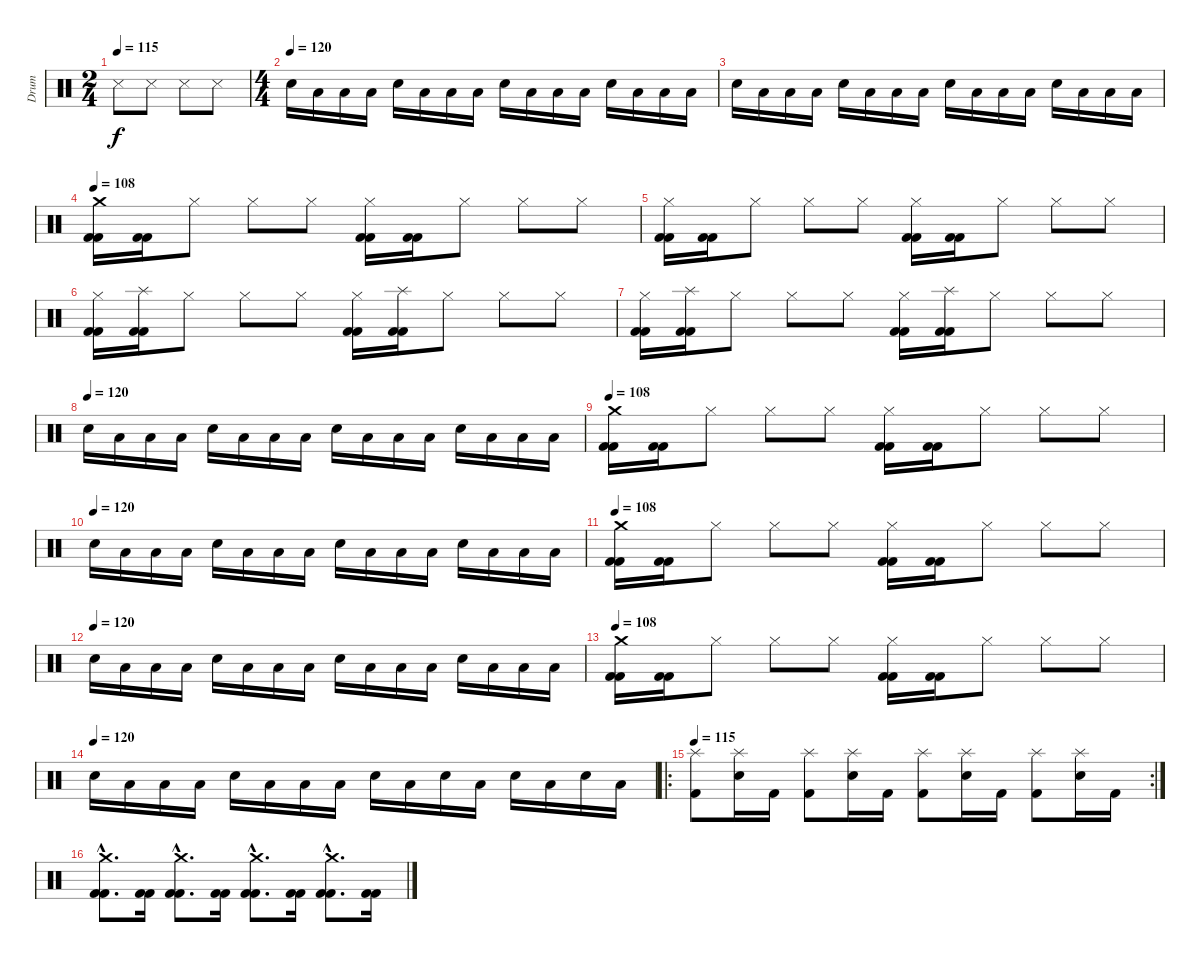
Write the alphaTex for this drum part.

\track ("Drum" "Drum") {instrument percussion}
\staff {score}
\articulation defaults
\ts (2 4)
\tempo 115
\tempo 107
\tempo 115
\clef neutral
\ks c "Snare (side stick) 3".8{dy f} "Snare (side stick) 3".8 "Snare (side stick) 3".8 "Snare (side stick) 3".8
|
\ts (4 4)
\tempo (120)
"Snare (hit) 2".16 "Low Tom (hit)".16 "Low Tom (hit)".16 "Low Tom (hit)".16 "Snare (hit) 2".16 "Low Tom (hit)".16 "Low Tom (hit)".16 "Low Tom (hit)".16 "Snare (hit) 2".16 "Low Tom (hit)".16 "Low Tom (hit)".16 "Low Tom (hit)".16 "Snare (hit) 2".16 "Low Tom (hit)".16 "Low Tom (hit)".16 "Low Tom (hit)".16 |
"Snare (hit) 2".16 "Low Tom (hit)".16 "Low Tom (hit)".16 "Low Tom (hit)".16 "Snare (hit) 2".16 "Low Tom (hit)".16 "Low Tom (hit)".16 "Low Tom (hit)".16 "Snare (hit) 2".16 "Low Tom (hit)".16 "Low Tom (hit)".16 "Low Tom (hit)".16 "Snare (hit) 2".16 "Low Tom (hit)".16 "Low Tom (hit)".16 "Low Tom (hit)".16 |
\tempo 108
("Crash medium (hit)" "Kick (hit) 2" "Kick (hit) 2").16 ("Kick (hit) 2" "Kick (hit) 2").16 "Hi-Hat (closed)".8 "Hi-Hat (closed)".8 "Hi-Hat (closed)".8 ("Hi-Hat (closed)" "Kick (hit) 2" "Kick (hit) 2").16 ("Kick (hit) 2" "Kick (hit) 2").16 "Hi-Hat (closed)".8 "Hi-Hat (closed)".8 "Hi-Hat (closed)".8 |
("Hi-Hat (closed)" "Kick (hit) 2" "Kick (hit) 2").16 ("Kick (hit) 2" "Kick (hit) 2").16 "Hi-Hat (closed)".8 "Hi-Hat (closed)".8 "Hi-Hat (closed)".8 ("Hi-Hat (closed)" "Kick (hit) 2" "Kick (hit) 2").16 ("Kick (hit) 2" "Kick (hit) 2").16 "Hi-Hat (closed)".8 "Hi-Hat (closed)".8 "Hi-Hat (closed)".8 |
("Hi-Hat (closed)" "Kick (hit) 2" "Kick (hit) 2").16 ("Splash (hit)" "Kick (hit) 2" "Kick (hit) 2").16 "Hi-Hat (closed)".8 "Hi-Hat (closed)".8 "Hi-Hat (closed)".8 ("Hi-Hat (closed)" "Kick (hit) 2" "Kick (hit) 2").16 ("Splash (hit)" "Kick (hit) 2" "Kick (hit) 2").16 "Hi-Hat (closed)".8 "Hi-Hat (closed)".8 "Hi-Hat (closed)".8 |
("Hi-Hat (closed)" "Kick (hit) 2" "Kick (hit) 2").16 ("Splash (hit)" "Kick (hit) 2" "Kick (hit) 2").16 "Hi-Hat (closed)".8 "Hi-Hat (closed)".8 "Hi-Hat (closed)".8 ("Hi-Hat (closed)" "Kick (hit) 2" "Kick (hit) 2").16 ("Splash (hit)" "Kick (hit) 2" "Kick (hit) 2").16 "Hi-Hat (closed)".8 "Hi-Hat (closed)".8 "Hi-Hat (closed)".8 |
\tempo (120)
"Snare (hit) 2".16 "Low Tom (hit)".16 "Low Tom (hit)".16 "Low Tom (hit)".16 "Snare (hit) 2".16 "Low Tom (hit)".16 "Low Tom (hit)".16 "Low Tom (hit)".16 "Snare (hit) 2".16 "Low Tom (hit)".16 "Low Tom (hit)".16 "Low Tom (hit)".16 "Snare (hit) 2".16 "Low Tom (hit)".16 "Low Tom (hit)".16 "Low Tom (hit)".16 |
\tempo 108
("Crash medium (hit)" "Kick (hit) 2" "Kick (hit) 2").16 ("Kick (hit) 2" "Kick (hit) 2").16 "Hi-Hat (closed)".8 "Hi-Hat (closed)".8 "Hi-Hat (closed)".8 ("Hi-Hat (closed)" "Kick (hit) 2" "Kick (hit) 2").16 ("Kick (hit) 2" "Kick (hit) 2").16 "Hi-Hat (closed)".8 "Hi-Hat (closed)".8 "Hi-Hat (closed)".8 |
\tempo (120)
"Snare (hit) 2".16 "Low Tom (hit)".16 "Low Tom (hit)".16 "Low Tom (hit)".16 "Snare (hit) 2".16 "Low Tom (hit)".16 "Low Tom (hit)".16 "Low Tom (hit)".16 "Snare (hit) 2".16 "Low Tom (hit)".16 "Low Tom (hit)".16 "Low Tom (hit)".16 "Snare (hit) 2".16 "Low Tom (hit)".16 "Low Tom (hit)".16 "Low Tom (hit)".16 |
\tempo 108
("Crash medium (hit)" "Kick (hit) 2" "Kick (hit) 2").16 ("Kick (hit) 2" "Kick (hit) 2").16 "Hi-Hat (closed)".8 "Hi-Hat (closed)".8 "Hi-Hat (closed)".8 ("Hi-Hat (closed)" "Kick (hit) 2" "Kick (hit) 2").16 ("Kick (hit) 2" "Kick (hit) 2").16 "Hi-Hat (closed)".8 "Hi-Hat (closed)".8 "Hi-Hat (closed)".8 |
\tempo (120)
"Snare (hit) 2".16 "Low Tom (hit)".16 "Low Tom (hit)".16 "Low Tom (hit)".16 "Snare (hit) 2".16 "Low Tom (hit)".16 "Low Tom (hit)".16 "Low Tom (hit)".16 "Snare (hit) 2".16 "Low Tom (hit)".16 "Low Tom (hit)".16 "Low Tom (hit)".16 "Snare (hit) 2".16 "Low Tom (hit)".16 "Low Tom (hit)".16 "Low Tom (hit)".16 |
\tempo 108
("Crash medium (hit)" "Kick (hit) 2" "Kick (hit) 2").16 ("Kick (hit) 2" "Kick (hit) 2").16 "Hi-Hat (closed)".8 "Hi-Hat (closed)".8 "Hi-Hat (closed)".8 ("Hi-Hat (closed)" "Kick (hit) 2" "Kick (hit) 2").16 ("Kick (hit) 2" "Kick (hit) 2").16 "Hi-Hat (closed)".8 "Hi-Hat (closed)".8 "Hi-Hat (closed)".8 |
\tempo (120)
"Snare (hit) 2".16 "Low Tom (hit)".16 "Low Tom (hit)".16 "Low Tom (hit)".16 "Snare (hit) 2".16 "Low Tom (hit)".16 "Low Tom (hit)".16 "Low Tom (hit)".16 "Snare (hit) 2".16 "Low Tom (hit)".16 "Snare (hit) 2".16 "Low Tom (hit)".16 "Snare (hit) 2".16 "Low Tom (hit)".16 "Snare (hit) 2".16 "Low Tom (hit)".16 |
\ro
\rc 2
\tempo 115
("Splash (hit)" "Kick (hit) 2").8 ("Splash (hit)" "Snare (hit) 2").16 "Kick (hit) 2".16 ("Splash (hit)" "Kick (hit) 2").8 ("Splash (hit)" "Snare (hit) 2").16 "Kick (hit) 2".16 ("Splash (hit)" "Kick (hit) 2").8 ("Splash (hit)" "Snare (hit) 2").16 "Kick (hit) 2".16 ("Splash (hit)" "Kick (hit) 2").8 ("Splash (hit)" "Snare (hit) 2").16 "Kick (hit) 2".16 |
("Crash medium (hit)"{hac} "Kick (hit) 2"{hac} "Kick (hit) 2"{hac}).8{d} ("Kick (hit) 2" "Kick (hit) 2").16 ("Crash medium (hit)"{hac} "Kick (hit) 2"{hac} "Kick (hit) 2"{hac}).8{d} ("Kick (hit) 2" "Kick (hit) 2").16 ("Crash medium (hit)"{hac} "Kick (hit) 2"{hac} "Kick (hit) 2"{hac}).8{d} ("Kick (hit) 2" "Kick (hit) 2").16 ("Crash medium (hit)"{hac} "Kick (hit) 2"{hac} "Kick (hit) 2"{hac}).8{d} ("Kick (hit) 2" "Kick (hit) 2").16
